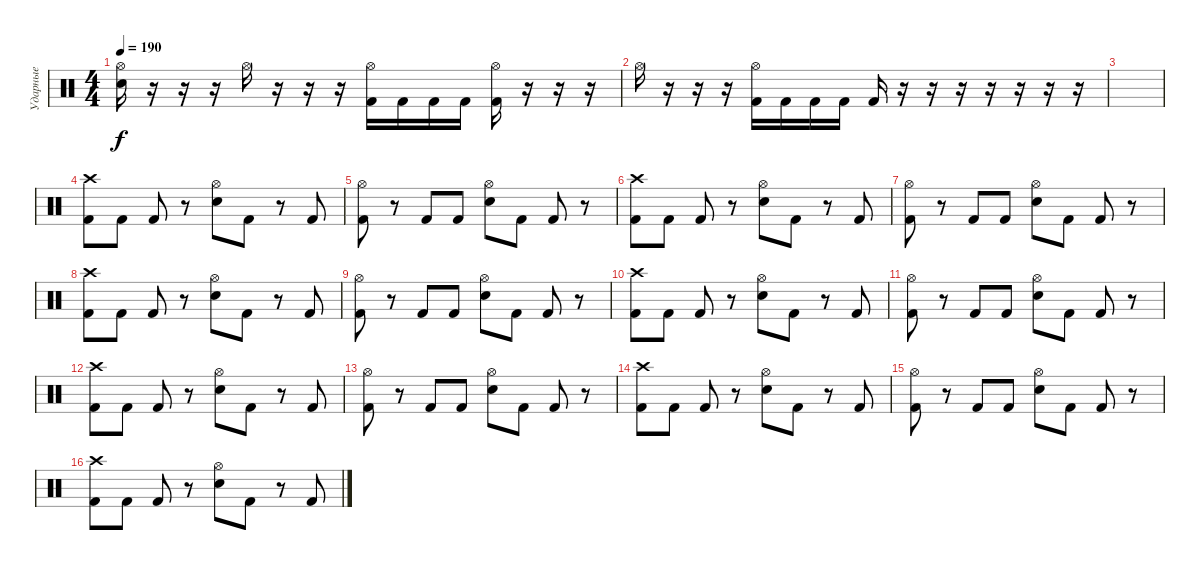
\track ("Ударные" "Ударные") {instrument percussion}
\staff {score}
\articulation defaults
\ts (4 4)
\tempo 190
\clef neutral
\ks c
("Hi-Hat (open)" "Electric Snare (hit)").16{dy f} r.16 r.16 r.16 "Hi-Hat (open)".16 r.16 r.16 r.16 ("Hi-Hat (open)" "Kick (hit) 2").16 "Kick (hit) 2".16 "Kick (hit) 2".16 "Kick (hit) 2".16 ("Hi-Hat (open)" "Kick (hit) 2").16 r.16 r.16 r.16 |
"Hi-Hat (open)".16 r.16 r.16 r.16 ("Hi-Hat (open)" "Kick (hit) 2").16 "Kick (hit) 2".16 "Kick (hit) 2".16 "Kick (hit) 2".16 "Kick (hit) 2".16 r.16 r.16 r.16 r.16 r.16 r.16 r.16 |
|
("Crash high (hit)" "Kick (hit) 2").8 "Kick (hit) 2".8 "Kick (hit) 2".8 r.8 ("Hi-Hat (open)" "Electric Snare (hit)").8 "Kick (hit) 2".8 r.8 "Kick (hit) 2".8 |
("Hi-Hat (open)" "Kick (hit) 2").8 r.8 "Kick (hit) 2".8 "Kick (hit) 2".8 ("Hi-Hat (open)" "Electric Snare (hit)").8 "Kick (hit) 2".8 "Kick (hit) 2".8 r.8 |
("Crash high (hit)" "Kick (hit) 2").8 "Kick (hit) 2".8 "Kick (hit) 2".8 r.8 ("Hi-Hat (open)" "Electric Snare (hit)").8 "Kick (hit) 2".8 r.8 "Kick (hit) 2".8 |
("Hi-Hat (open)" "Kick (hit) 2").8 r.8 "Kick (hit) 2".8 "Kick (hit) 2".8 ("Hi-Hat (open)" "Electric Snare (hit)").8 "Kick (hit) 2".8 "Kick (hit) 2".8 r.8 |
("Crash high (hit)" "Kick (hit) 2").8 "Kick (hit) 2".8 "Kick (hit) 2".8 r.8 ("Hi-Hat (open)" "Electric Snare (hit)").8 "Kick (hit) 2".8 r.8 "Kick (hit) 2".8 |
("Hi-Hat (open)" "Kick (hit) 2").8 r.8 "Kick (hit) 2".8 "Kick (hit) 2".8 ("Hi-Hat (open)" "Electric Snare (hit)").8 "Kick (hit) 2".8 "Kick (hit) 2".8 r.8 |
("Crash high (hit)" "Kick (hit) 2").8 "Kick (hit) 2".8 "Kick (hit) 2".8 r.8 ("Hi-Hat (open)" "Electric Snare (hit)").8 "Kick (hit) 2".8 r.8 "Kick (hit) 2".8 |
("Hi-Hat (open)" "Kick (hit) 2").8 r.8 "Kick (hit) 2".8 "Kick (hit) 2".8 ("Hi-Hat (open)" "Electric Snare (hit)").8 "Kick (hit) 2".8 "Kick (hit) 2".8 r.8 |
("Crash high (hit)" "Kick (hit) 2").8 "Kick (hit) 2".8 "Kick (hit) 2".8 r.8 ("Hi-Hat (open)" "Electric Snare (hit)").8 "Kick (hit) 2".8 r.8 "Kick (hit) 2".8 |
("Hi-Hat (open)" "Kick (hit) 2").8 r.8 "Kick (hit) 2".8 "Kick (hit) 2".8 ("Hi-Hat (open)" "Electric Snare (hit)").8 "Kick (hit) 2".8 "Kick (hit) 2".8 r.8 |
("Crash high (hit)" "Kick (hit) 2").8 "Kick (hit) 2".8 "Kick (hit) 2".8 r.8 ("Hi-Hat (open)" "Electric Snare (hit)").8 "Kick (hit) 2".8 r.8 "Kick (hit) 2".8 |
("Hi-Hat (open)" "Kick (hit) 2").8 r.8 "Kick (hit) 2".8 "Kick (hit) 2".8 ("Hi-Hat (open)" "Electric Snare (hit)").8 "Kick (hit) 2".8 "Kick (hit) 2".8 r.8 |
("Crash high (hit)" "Kick (hit) 2").8 "Kick (hit) 2".8 "Kick (hit) 2".8 r.8 ("Hi-Hat (open)" "Electric Snare (hit)").8 "Kick (hit) 2".8 r.8 "Kick (hit) 2".8
